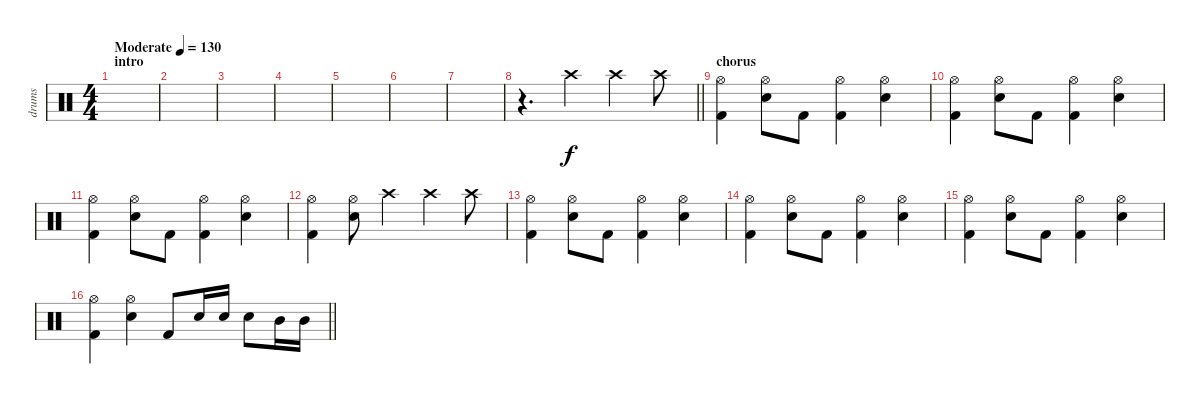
\track ("drums" "drums") {instrument percussion}
\staff {score}
\articulation defaults
\ts (4 4)
\section ("" "intro")
\tempo (130 "Moderate")
\clef neutral
\ks c
|
|
|
|
|
|
|
\barLineRight lightlight
r.4{d} "Crash high (hit)".4 "Crash high (hit)".4 "Crash high (hit)".8 |
\section ("" "chorus")
("Hi-Hat (open)" "Kick (hit) 2").4 ("Hi-Hat (open)" "Snare (hit) 2").8 "Kick (hit) 2".8 ("Hi-Hat (open)" "Kick (hit) 2").4 ("Hi-Hat (open)" "Snare (hit) 2").4 |
("Hi-Hat (open)" "Kick (hit) 2").4 ("Hi-Hat (open)" "Snare (hit) 2").8 "Kick (hit) 2".8 ("Hi-Hat (open)" "Kick (hit) 2").4 ("Hi-Hat (open)" "Snare (hit) 2").4 |
("Hi-Hat (open)" "Kick (hit) 2").4 ("Hi-Hat (open)" "Snare (hit) 2").8 "Kick (hit) 2".8 ("Hi-Hat (open)" "Kick (hit) 2").4 ("Hi-Hat (open)" "Snare (hit) 2").4 |
("Hi-Hat (open)" "Kick (hit) 2").4 ("Hi-Hat (open)" "Snare (hit) 2").8 "Crash high (hit)".4 "Crash high (hit)".4 "Crash high (hit)".8 |
("Hi-Hat (open)" "Kick (hit) 2").4 ("Hi-Hat (open)" "Snare (hit) 2").8 "Kick (hit) 2".8 ("Hi-Hat (open)" "Kick (hit) 2").4 ("Hi-Hat (open)" "Snare (hit) 2").4 |
("Hi-Hat (open)" "Kick (hit) 2").4 ("Hi-Hat (open)" "Snare (hit) 2").8 "Kick (hit) 2".8 ("Hi-Hat (open)" "Kick (hit) 2").4 ("Hi-Hat (open)" "Snare (hit) 2").4 |
("Hi-Hat (open)" "Kick (hit) 2").4 ("Hi-Hat (open)" "Snare (hit) 2").8 "Kick (hit) 2".8 ("Hi-Hat (open)" "Kick (hit) 2").4 ("Hi-Hat (open)" "Snare (hit) 2").4 |
\barLineRight lightlight
("Hi-Hat (open)" "Kick (hit) 2").4 ("Hi-Hat (open)" "Snare (hit) 2").4 "Kick (hit) 2".8 "Snare (hit) 2".16 "Snare (hit) 2".16 "Snare (hit) 2".8 "Mid Tom (hit)".16 "Mid Tom (hit)".16
